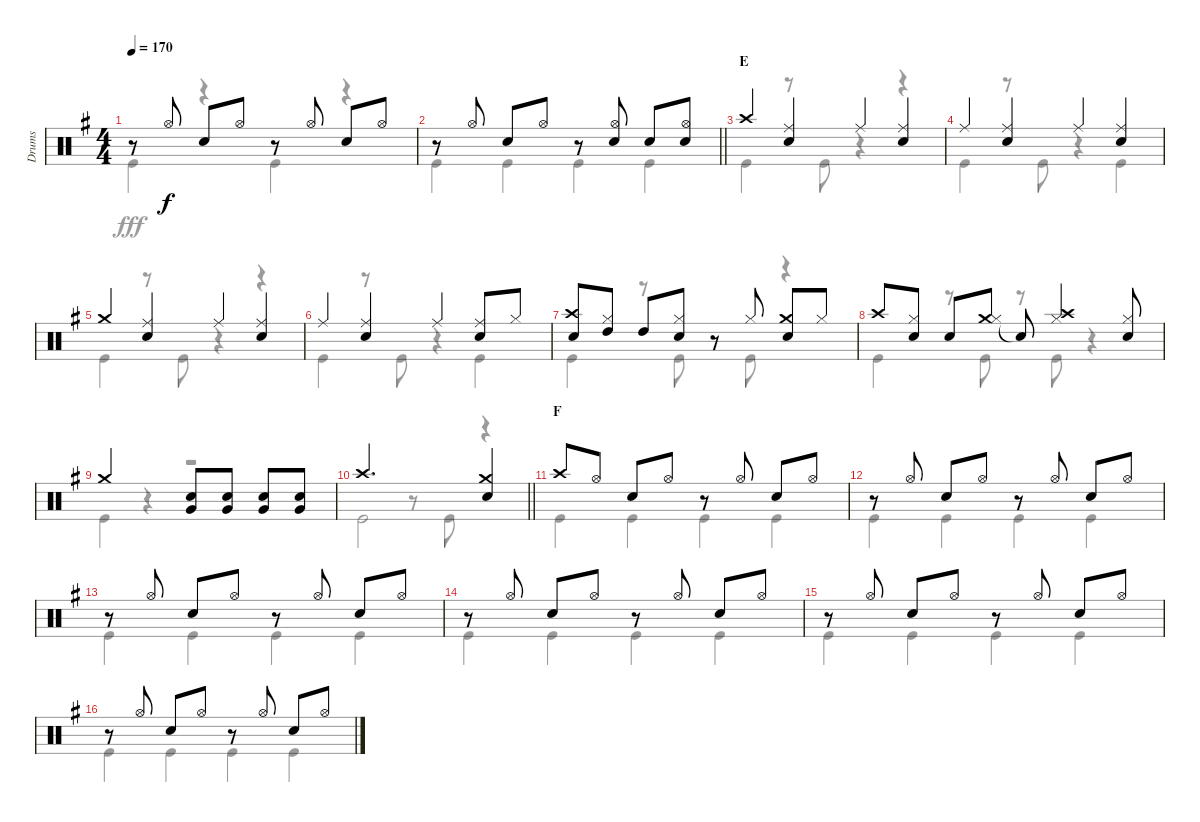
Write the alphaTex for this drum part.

\track ("Drums" "Drums") {instrument percussion}
\staff {score}
\articulation defaults
\voice
\ts (4 4)
\tempo 170
\clef neutral
\ks g
r.8{dy f} "Hi-Hat (open)".8 "Snare (hit) 2".8 "Hi-Hat (open)".8 r.8 "Hi-Hat (open)".8 "Snare (hit) 2".8 "Hi-Hat (open)".8 |
\barLineRight lightlight
r.8 "Hi-Hat (open)".8 "Snare (hit) 2".8 "Hi-Hat (open)".8 r.8 ("Hi-Hat (open)" "Snare (hit) 2").8 "Snare (hit) 2".8 ("Hi-Hat (open)" "Snare (hit) 2").8 |
\section ("" "E")
"Crash high (hit)".4 ("Ride (middle)" "Snare (hit) 2").4 "Ride (middle)".4 ("Ride (middle)" "Snare (hit) 2").4 |
"Ride (middle)".4 ("Ride (middle)" "Snare (hit) 2").4 "Ride (middle)".4 ("Ride (middle)" "Snare (hit) 2").4 |
"Crash medium (hit)".4 ("Ride (middle)" "Snare (hit) 2").4 "Ride (middle)".4 ("Ride (middle)" "Snare (hit) 2").4 |
"Ride (middle)".4 ("Ride (middle)" "Snare (hit) 2").4 "Ride (middle)".4 ("Ride (middle)" "Snare (hit) 2").8 "Hi-Hat (closed)".8 |
("Crash high (hit)" "Snare (hit) 2").8 ("Hi-Hat (closed)" "High Tom (hit)").8 "High Tom (hit)".8 ("Hi-Hat (closed)" "Snare (hit) 2").8 r.8 "Hi-Hat (closed)".8 ("Crash medium (hit)" "Snare (hit) 2").8 "Hi-Hat (closed)".8 |
"Crash high (hit)".8 ("Hi-Hat (closed)" "Snare (hit) 2").8 "Snare (hit) 2".8 ("Crash medium (hit)" "Hi-Hat (closed)").8 "Snare (hit)"{t}.8 ("Crash high (hit)" "Hi-Hat (closed)").4 ("Hi-Hat (closed)" "Snare (hit) 2").8 |
"Crash medium (hit)".2 ("Snare (hit) 2" "Very Low Tom (hit)").8 ("Snare (hit) 2" "Very Low Tom (hit)").8 ("Snare (hit) 2" "Very Low Tom (hit)").8 ("Snare (hit) 2" "Very Low Tom (hit)").8 |
\barLineRight lightlight "Crash high (hit)".2{d}
("Crash medium (hit)" "Snare (hit) 2").4 |
\section ("" "F")
"Crash high (hit)".8 "Hi-Hat (open)".8 "Snare (hit) 2".8 "Hi-Hat (open)".8 r.8 "Hi-Hat (open)".8 "Snare (hit) 2".8 "Hi-Hat (open)".8 |
r.8 "Hi-Hat (open)".8 "Snare (hit) 2".8 "Hi-Hat (open)".8 r.8 "Hi-Hat (open)".8 "Snare (hit) 2".8 "Hi-Hat (open)".8 |
r.8 "Hi-Hat (open)".8 "Snare (hit) 2".8 "Hi-Hat (open)".8 r.8 "Hi-Hat (open)".8 "Snare (hit) 2".8 "Hi-Hat (open)".8 |
r.8 "Hi-Hat (open)".8 "Snare (hit) 2".8 "Hi-Hat (open)".8 r.8 "Hi-Hat (open)".8 "Snare (hit) 2".8 "Hi-Hat (open)".8 |
r.8 "Hi-Hat (open)".8 "Snare (hit) 2".8 "Hi-Hat (open)".8 r.8 "Hi-Hat (open)".8 "Snare (hit) 2".8 "Hi-Hat (open)".8 |
r.8 "Hi-Hat (open)".8 "Snare (hit) 2".8 "Hi-Hat (open)".8 r.8 "Hi-Hat (open)".8 "Snare (hit) 2".8 "Hi-Hat (open)".8
\voice
\clef neutral
\ottava regular
\simile none
\ks g "Kick (hit)".4{dy fff}
r.4 "Kick (hit)".4 r.4 |
\barLineRight lightlight "Kick (hit)".4 "Kick (hit)".4 "Kick (hit)".4 "Kick (hit)".4
|
"Kick (hit)".4 r.8 "Kick (hit)".8 r.4 r.4 |
"Kick (hit)".4 r.8 "Kick (hit)".8 r.4 "Kick (hit)".4 |
"Kick (hit)".4 r.8 "Kick (hit)".8 r.4 r.4 |
"Kick (hit)".4 r.8 "Kick (hit)".8 r.4 "Kick (hit)".4 |
"Kick (hit)".4 r.8 "Kick (hit)".8 r.8 "Kick (hit)".8 r.4 |
"Kick (hit)".4 r.8 "Kick (hit)".8 r.8 "Kick (hit)".8 r.4 |
"Kick (hit)".4 r.4 r.2 |
\barLineRight lightlight "Kick (hit)".2
r.8 "Kick (hit)".8 r.4 |
"Kick (hit)".4 "Kick (hit)".4 "Kick (hit)".4 "Kick (hit)".4 |
"Kick (hit)".4 "Kick (hit)".4 "Kick (hit)".4 "Kick (hit)".4 |
"Kick (hit)".4 "Kick (hit)".4 "Kick (hit)".4 "Kick (hit)".4 |
"Kick (hit)".4 "Kick (hit)".4 "Kick (hit)".4 "Kick (hit)".4 |
"Kick (hit)".4 "Kick (hit)".4 "Kick (hit)".4 "Kick (hit)".4 |
"Kick (hit)".4 "Kick (hit)".4 "Kick (hit)".4 "Kick (hit)".4
